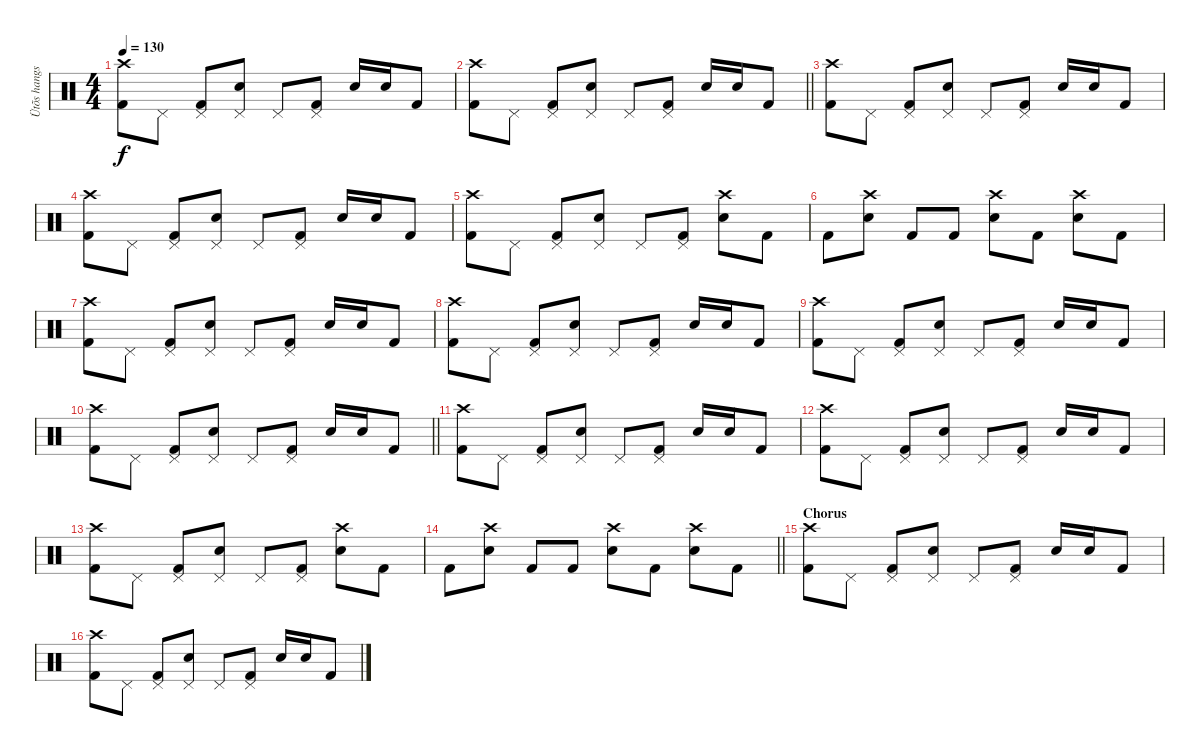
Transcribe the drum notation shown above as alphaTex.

\track ("Ütõs hangszer" "Ütõs hangs") {instrument percussion}
\staff {score}
\articulation defaults
\ts (4 4)
\tempo 130
\clef neutral
\ks c
("Crash high (hit)" "Kick (hit) 2").8{dy f} "Pedal Hi-Hat (hit)".8 ("Pedal Hi-Hat (hit)" "Kick (hit) 2").8 ("Pedal Hi-Hat (hit)" "Snare (hit) 2").8 "Pedal Hi-Hat (hit)".8 ("Pedal Hi-Hat (hit)" "Kick (hit) 2").8 "Snare (hit) 2".16 "Snare (hit) 2".16 "Kick (hit) 2".8 |
\barLineRight lightlight
("Crash high (hit)" "Kick (hit) 2").8 "Pedal Hi-Hat (hit)".8 ("Pedal Hi-Hat (hit)" "Kick (hit) 2").8 ("Pedal Hi-Hat (hit)" "Snare (hit) 2").8 "Pedal Hi-Hat (hit)".8 ("Pedal Hi-Hat (hit)" "Kick (hit) 2").8 "Snare (hit) 2".16 "Snare (hit) 2".16 "Kick (hit) 2".8 |
("Crash high (hit)" "Kick (hit) 2").8 "Pedal Hi-Hat (hit)".8 ("Pedal Hi-Hat (hit)" "Kick (hit) 2").8 ("Pedal Hi-Hat (hit)" "Snare (hit) 2").8 "Pedal Hi-Hat (hit)".8 ("Pedal Hi-Hat (hit)" "Kick (hit) 2").8 "Snare (hit) 2".16 "Snare (hit) 2".16 "Kick (hit) 2".8 |
("Crash high (hit)" "Kick (hit) 2").8 "Pedal Hi-Hat (hit)".8 ("Pedal Hi-Hat (hit)" "Kick (hit) 2").8 ("Pedal Hi-Hat (hit)" "Snare (hit) 2").8 "Pedal Hi-Hat (hit)".8 ("Pedal Hi-Hat (hit)" "Kick (hit) 2").8 "Snare (hit) 2".16 "Snare (hit) 2".16 "Kick (hit) 2".8 |
("Crash high (hit)" "Kick (hit) 2").8 "Pedal Hi-Hat (hit)".8 ("Pedal Hi-Hat (hit)" "Kick (hit) 2").8 ("Pedal Hi-Hat (hit)" "Snare (hit) 2").8 "Pedal Hi-Hat (hit)".8 ("Pedal Hi-Hat (hit)" "Kick (hit) 2").8 ("Crash high (hit)" "Snare (hit) 2").8 "Kick (hit) 2".8 |
"Kick (hit) 2".8 ("Crash high (hit)" "Snare (hit) 2").8 "Kick (hit) 2".8 "Kick (hit) 2".8 ("Crash high (hit)" "Snare (hit) 2").8 "Kick (hit) 2".8 ("Crash high (hit)" "Snare (hit) 2").8 "Kick (hit) 2".8 |
("Crash high (hit)" "Kick (hit) 2").8 "Pedal Hi-Hat (hit)".8 ("Pedal Hi-Hat (hit)" "Kick (hit) 2").8 ("Pedal Hi-Hat (hit)" "Snare (hit) 2").8 "Pedal Hi-Hat (hit)".8 ("Pedal Hi-Hat (hit)" "Kick (hit) 2").8 "Snare (hit) 2".16 "Snare (hit) 2".16 "Kick (hit) 2".8 |
("Crash high (hit)" "Kick (hit) 2").8 "Pedal Hi-Hat (hit)".8 ("Pedal Hi-Hat (hit)" "Kick (hit) 2").8 ("Pedal Hi-Hat (hit)" "Snare (hit) 2").8 "Pedal Hi-Hat (hit)".8 ("Pedal Hi-Hat (hit)" "Kick (hit) 2").8 "Snare (hit) 2".16 "Snare (hit) 2".16 "Kick (hit) 2".8 |
("Crash high (hit)" "Kick (hit) 2").8 "Pedal Hi-Hat (hit)".8 ("Pedal Hi-Hat (hit)" "Kick (hit) 2").8 ("Pedal Hi-Hat (hit)" "Snare (hit) 2").8 "Pedal Hi-Hat (hit)".8 ("Pedal Hi-Hat (hit)" "Kick (hit) 2").8 "Snare (hit) 2".16 "Snare (hit) 2".16 "Kick (hit) 2".8 |
\barLineRight lightlight
("Crash high (hit)" "Kick (hit) 2").8 "Pedal Hi-Hat (hit)".8 ("Pedal Hi-Hat (hit)" "Kick (hit) 2").8 ("Pedal Hi-Hat (hit)" "Snare (hit) 2").8 "Pedal Hi-Hat (hit)".8 ("Pedal Hi-Hat (hit)" "Kick (hit) 2").8 "Snare (hit) 2".16 "Snare (hit) 2".16 "Kick (hit) 2".8 |
("Crash high (hit)" "Kick (hit) 2").8 "Pedal Hi-Hat (hit)".8 ("Pedal Hi-Hat (hit)" "Kick (hit) 2").8 ("Pedal Hi-Hat (hit)" "Snare (hit) 2").8 "Pedal Hi-Hat (hit)".8 ("Pedal Hi-Hat (hit)" "Kick (hit) 2").8 "Snare (hit) 2".16 "Snare (hit) 2".16 "Kick (hit) 2".8 |
("Crash high (hit)" "Kick (hit) 2").8 "Pedal Hi-Hat (hit)".8 ("Pedal Hi-Hat (hit)" "Kick (hit) 2").8 ("Pedal Hi-Hat (hit)" "Snare (hit) 2").8 "Pedal Hi-Hat (hit)".8 ("Pedal Hi-Hat (hit)" "Kick (hit) 2").8 "Snare (hit) 2".16 "Snare (hit) 2".16 "Kick (hit) 2".8 |
("Crash high (hit)" "Kick (hit) 2").8 "Pedal Hi-Hat (hit)".8 ("Pedal Hi-Hat (hit)" "Kick (hit) 2").8 ("Pedal Hi-Hat (hit)" "Snare (hit) 2").8 "Pedal Hi-Hat (hit)".8 ("Pedal Hi-Hat (hit)" "Kick (hit) 2").8 ("Crash high (hit)" "Snare (hit) 2").8 "Kick (hit) 2".8 |
\barLineRight lightlight "Kick (hit) 2".8
("Crash high (hit)" "Snare (hit) 2").8 "Kick (hit) 2".8 "Kick (hit) 2".8 ("Crash high (hit)" "Snare (hit) 2").8 "Kick (hit) 2".8 ("Crash high (hit)" "Snare (hit) 2").8 "Kick (hit) 2".8 |
\section ("" "Chorus")
("Crash high (hit)" "Kick (hit) 2").8 "Pedal Hi-Hat (hit)".8 ("Pedal Hi-Hat (hit)" "Kick (hit) 2").8 ("Pedal Hi-Hat (hit)" "Snare (hit) 2").8 "Pedal Hi-Hat (hit)".8 ("Pedal Hi-Hat (hit)" "Kick (hit) 2").8 "Snare (hit) 2".16 "Snare (hit) 2".16 "Kick (hit) 2".8 |
("Crash high (hit)" "Kick (hit) 2").8 "Pedal Hi-Hat (hit)".8 ("Pedal Hi-Hat (hit)" "Kick (hit) 2").8 ("Pedal Hi-Hat (hit)" "Snare (hit) 2").8 "Pedal Hi-Hat (hit)".8 ("Pedal Hi-Hat (hit)" "Kick (hit) 2").8 "Snare (hit) 2".16 "Snare (hit) 2".16 "Kick (hit) 2".8
